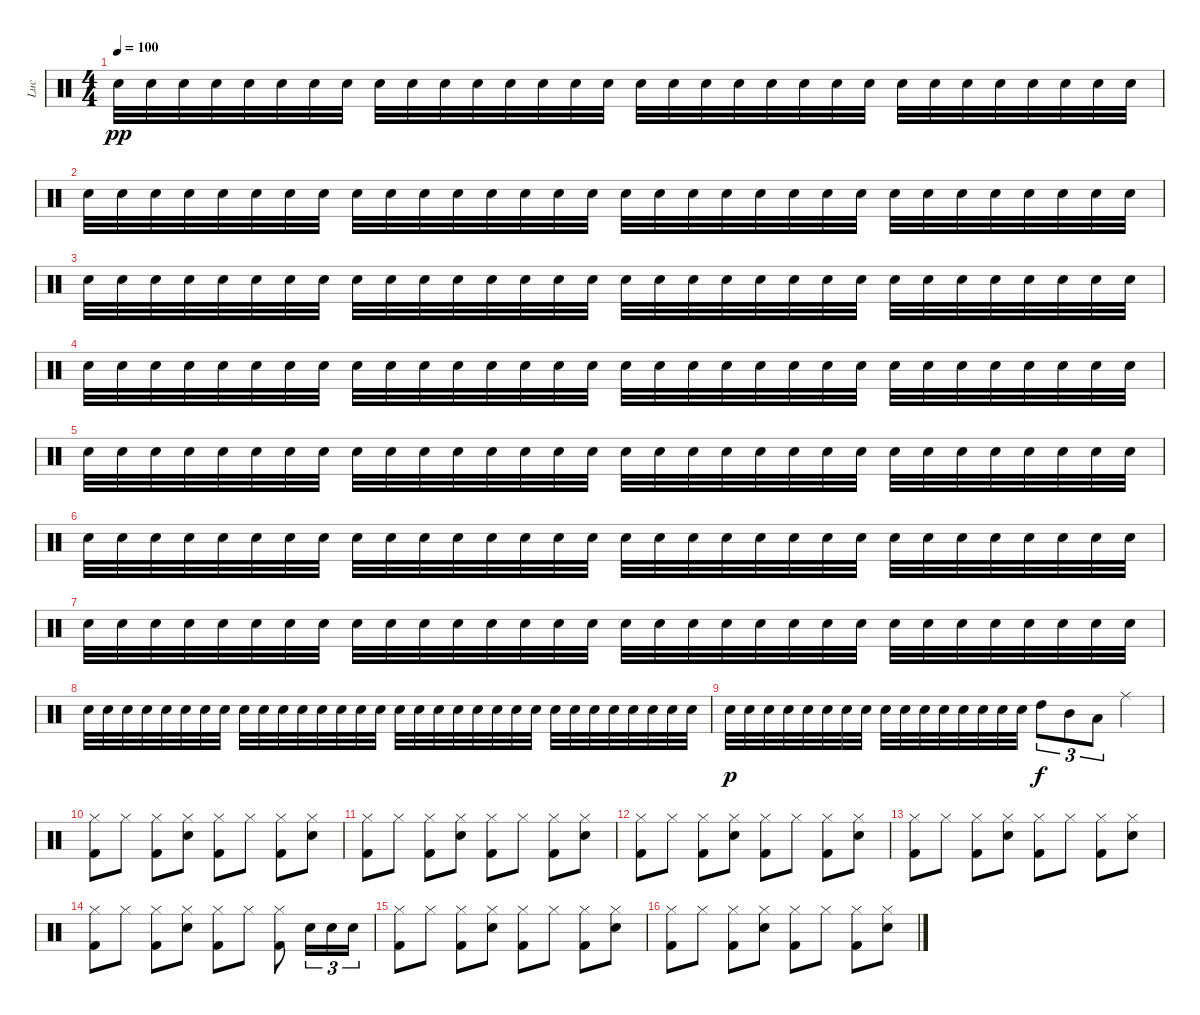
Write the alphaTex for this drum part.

\track ("Luc" "Luc") {instrument percussion}
\staff {score}
\articulation defaults
\ts (4 4)
\tempo 100
\clef neutral
\ks c "Snare (hit) 2".32{dy pp} "Snare (hit) 2".32 "Snare (hit) 2".32 "Snare (hit) 2".32 "Snare (hit) 2".32 "Snare (hit) 2".32 "Snare (hit) 2".32 "Snare (hit) 2".32 "Snare (hit) 2".32 "Snare (hit) 2".32 "Snare (hit) 2".32 "Snare (hit) 2".32 "Snare (hit) 2".32 "Snare (hit) 2".32 "Snare (hit) 2".32 "Snare (hit) 2".32 "Snare (hit) 2".32 "Snare (hit) 2".32 "Snare (hit) 2".32 "Snare (hit) 2".32 "Snare (hit) 2".32 "Snare (hit) 2".32 "Snare (hit) 2".32 "Snare (hit) 2".32 "Snare (hit) 2".32 "Snare (hit) 2".32 "Snare (hit) 2".32 "Snare (hit) 2".32 "Snare (hit) 2".32 "Snare (hit) 2".32 "Snare (hit) 2".32 "Snare (hit) 2".32
|
"Snare (hit) 2".32 "Snare (hit) 2".32 "Snare (hit) 2".32 "Snare (hit) 2".32 "Snare (hit) 2".32 "Snare (hit) 2".32 "Snare (hit) 2".32 "Snare (hit) 2".32 "Snare (hit) 2".32 "Snare (hit) 2".32 "Snare (hit) 2".32 "Snare (hit) 2".32 "Snare (hit) 2".32 "Snare (hit) 2".32 "Snare (hit) 2".32 "Snare (hit) 2".32 "Snare (hit) 2".32 "Snare (hit) 2".32 "Snare (hit) 2".32 "Snare (hit) 2".32 "Snare (hit) 2".32 "Snare (hit) 2".32 "Snare (hit) 2".32 "Snare (hit) 2".32 "Snare (hit) 2".32 "Snare (hit) 2".32 "Snare (hit) 2".32 "Snare (hit) 2".32 "Snare (hit) 2".32 "Snare (hit) 2".32 "Snare (hit) 2".32 "Snare (hit) 2".32 |
"Snare (hit) 2".32 "Snare (hit) 2".32 "Snare (hit) 2".32 "Snare (hit) 2".32 "Snare (hit) 2".32 "Snare (hit) 2".32 "Snare (hit) 2".32 "Snare (hit) 2".32 "Snare (hit) 2".32 "Snare (hit) 2".32 "Snare (hit) 2".32 "Snare (hit) 2".32 "Snare (hit) 2".32 "Snare (hit) 2".32 "Snare (hit) 2".32 "Snare (hit) 2".32 "Snare (hit) 2".32 "Snare (hit) 2".32 "Snare (hit) 2".32 "Snare (hit) 2".32 "Snare (hit) 2".32 "Snare (hit) 2".32 "Snare (hit) 2".32 "Snare (hit) 2".32 "Snare (hit) 2".32 "Snare (hit) 2".32 "Snare (hit) 2".32 "Snare (hit) 2".32 "Snare (hit) 2".32 "Snare (hit) 2".32 "Snare (hit) 2".32 "Snare (hit) 2".32 |
"Snare (hit) 2".32 "Snare (hit) 2".32 "Snare (hit) 2".32 "Snare (hit) 2".32 "Snare (hit) 2".32 "Snare (hit) 2".32 "Snare (hit) 2".32 "Snare (hit) 2".32 "Snare (hit) 2".32 "Snare (hit) 2".32 "Snare (hit) 2".32 "Snare (hit) 2".32 "Snare (hit) 2".32 "Snare (hit) 2".32 "Snare (hit) 2".32 "Snare (hit) 2".32 "Snare (hit) 2".32 "Snare (hit) 2".32 "Snare (hit) 2".32 "Snare (hit) 2".32 "Snare (hit) 2".32 "Snare (hit) 2".32 "Snare (hit) 2".32 "Snare (hit) 2".32 "Snare (hit) 2".32 "Snare (hit) 2".32 "Snare (hit) 2".32 "Snare (hit) 2".32 "Snare (hit) 2".32 "Snare (hit) 2".32 "Snare (hit) 2".32 "Snare (hit) 2".32 |
"Snare (hit) 2".32 "Snare (hit) 2".32 "Snare (hit) 2".32 "Snare (hit) 2".32 "Snare (hit) 2".32 "Snare (hit) 2".32 "Snare (hit) 2".32 "Snare (hit) 2".32 "Snare (hit) 2".32 "Snare (hit) 2".32 "Snare (hit) 2".32 "Snare (hit) 2".32 "Snare (hit) 2".32 "Snare (hit) 2".32 "Snare (hit) 2".32 "Snare (hit) 2".32 "Snare (hit) 2".32 "Snare (hit) 2".32 "Snare (hit) 2".32 "Snare (hit) 2".32 "Snare (hit) 2".32 "Snare (hit) 2".32 "Snare (hit) 2".32 "Snare (hit) 2".32 "Snare (hit) 2".32 "Snare (hit) 2".32 "Snare (hit) 2".32 "Snare (hit) 2".32 "Snare (hit) 2".32 "Snare (hit) 2".32 "Snare (hit) 2".32 "Snare (hit) 2".32 |
"Snare (hit) 2".32 "Snare (hit) 2".32 "Snare (hit) 2".32 "Snare (hit) 2".32 "Snare (hit) 2".32 "Snare (hit) 2".32 "Snare (hit) 2".32 "Snare (hit) 2".32 "Snare (hit) 2".32 "Snare (hit) 2".32 "Snare (hit) 2".32 "Snare (hit) 2".32 "Snare (hit) 2".32 "Snare (hit) 2".32 "Snare (hit) 2".32 "Snare (hit) 2".32 "Snare (hit) 2".32 "Snare (hit) 2".32 "Snare (hit) 2".32 "Snare (hit) 2".32 "Snare (hit) 2".32 "Snare (hit) 2".32 "Snare (hit) 2".32 "Snare (hit) 2".32 "Snare (hit) 2".32 "Snare (hit) 2".32 "Snare (hit) 2".32 "Snare (hit) 2".32 "Snare (hit) 2".32 "Snare (hit) 2".32 "Snare (hit) 2".32 "Snare (hit) 2".32 |
"Snare (hit) 2".32 "Snare (hit) 2".32 "Snare (hit) 2".32 "Snare (hit) 2".32 "Snare (hit) 2".32 "Snare (hit) 2".32 "Snare (hit) 2".32 "Snare (hit) 2".32 "Snare (hit) 2".32 "Snare (hit) 2".32 "Snare (hit) 2".32 "Snare (hit) 2".32 "Snare (hit) 2".32 "Snare (hit) 2".32 "Snare (hit) 2".32 "Snare (hit) 2".32 "Snare (hit) 2".32 "Snare (hit) 2".32 "Snare (hit) 2".32 "Snare (hit) 2".32 "Snare (hit) 2".32 "Snare (hit) 2".32 "Snare (hit) 2".32 "Snare (hit) 2".32 "Snare (hit) 2".32 "Snare (hit) 2".32 "Snare (hit) 2".32 "Snare (hit) 2".32 "Snare (hit) 2".32 "Snare (hit) 2".32 "Snare (hit) 2".32 "Snare (hit) 2".32 |
"Snare (hit) 2".32 "Snare (hit) 2".32 "Snare (hit) 2".32 "Snare (hit) 2".32 "Snare (hit) 2".32 "Snare (hit) 2".32 "Snare (hit) 2".32 "Snare (hit) 2".32 "Snare (hit) 2".32 "Snare (hit) 2".32 "Snare (hit) 2".32 "Snare (hit) 2".32 "Snare (hit) 2".32 "Snare (hit) 2".32 "Snare (hit) 2".32 "Snare (hit) 2".32 "Snare (hit) 2".32 "Snare (hit) 2".32 "Snare (hit) 2".32 "Snare (hit) 2".32 "Snare (hit) 2".32 "Snare (hit) 2".32 "Snare (hit) 2".32 "Snare (hit) 2".32 "Snare (hit) 2".32 "Snare (hit) 2".32 "Snare (hit) 2".32 "Snare (hit) 2".32 "Snare (hit) 2".32 "Snare (hit) 2".32 "Snare (hit) 2".32 "Snare (hit) 2".32 |
"Snare (hit) 2".32{dy p} "Snare (hit) 2".32 "Snare (hit) 2".32 "Snare (hit) 2".32 "Snare (hit) 2".32 "Snare (hit) 2".32 "Snare (hit) 2".32 "Snare (hit) 2".32 "Snare (hit) 2".32 "Snare (hit) 2".32 "Snare (hit) 2".32 "Snare (hit) 2".32 "Snare (hit) 2".32 "Snare (hit) 2".32 "Snare (hit) 2".32 "Snare (hit) 2".32 "High Tom (hit)".8{tu (3 2) dy f} "Mid Tom (hit)".8{tu (3 2)} "Low Tom (hit)".8{tu (3 2)} "Ride (middle)".4 |
("Hi-Hat (closed)" "Kick (hit) 2").8 "Hi-Hat (closed)".8 ("Hi-Hat (closed)" "Kick (hit) 2").8 ("Hi-Hat (closed)" "Snare (hit) 2").8 ("Hi-Hat (closed)" "Kick (hit) 2").8 "Hi-Hat (closed)".8 ("Hi-Hat (closed)" "Kick (hit) 2").8 ("Hi-Hat (closed)" "Snare (hit) 2").8 |
("Hi-Hat (closed)" "Kick (hit) 2").8 "Hi-Hat (closed)".8 ("Hi-Hat (closed)" "Kick (hit) 2").8 ("Hi-Hat (closed)" "Snare (hit) 2").8 ("Hi-Hat (closed)" "Kick (hit) 2").8 "Hi-Hat (closed)".8 ("Hi-Hat (closed)" "Kick (hit) 2").8 ("Hi-Hat (closed)" "Snare (hit) 2").8 |
("Hi-Hat (closed)" "Kick (hit) 2").8 "Hi-Hat (closed)".8 ("Hi-Hat (closed)" "Kick (hit) 2").8 ("Hi-Hat (closed)" "Snare (hit) 2").8 ("Hi-Hat (closed)" "Kick (hit) 2").8 "Hi-Hat (closed)".8 ("Hi-Hat (closed)" "Kick (hit) 2").8 ("Hi-Hat (closed)" "Snare (hit) 2").8 |
("Hi-Hat (closed)" "Kick (hit) 2").8 "Hi-Hat (closed)".8 ("Hi-Hat (closed)" "Kick (hit) 2").8 ("Hi-Hat (closed)" "Snare (hit) 2").8 ("Hi-Hat (closed)" "Kick (hit) 2").8 "Hi-Hat (closed)".8 ("Hi-Hat (closed)" "Kick (hit) 2").8 ("Hi-Hat (closed)" "Snare (hit) 2").8 |
("Hi-Hat (closed)" "Kick (hit) 2").8 "Hi-Hat (closed)".8 ("Hi-Hat (closed)" "Kick (hit) 2").8 ("Hi-Hat (closed)" "Snare (hit) 2").8 ("Hi-Hat (closed)" "Kick (hit) 2").8 "Hi-Hat (closed)".8 ("Hi-Hat (closed)" "Kick (hit) 2").8 "Snare (hit) 2".16{tu (3 2)} "Snare (hit) 2".16{tu (3 2)} "Snare (hit) 2".16{tu (3 2)} |
("Hi-Hat (closed)" "Kick (hit) 2").8 "Hi-Hat (closed)".8 ("Hi-Hat (closed)" "Kick (hit) 2").8 ("Hi-Hat (closed)" "Snare (hit) 2").8 ("Hi-Hat (closed)" "Kick (hit) 2").8 "Hi-Hat (closed)".8 ("Hi-Hat (closed)" "Kick (hit) 2").8 ("Hi-Hat (closed)" "Snare (hit) 2").8 |
("Hi-Hat (closed)" "Kick (hit) 2").8 "Hi-Hat (closed)".8 ("Hi-Hat (closed)" "Kick (hit) 2").8 ("Hi-Hat (closed)" "Snare (hit) 2").8 ("Hi-Hat (closed)" "Kick (hit) 2").8 "Hi-Hat (closed)".8 ("Hi-Hat (closed)" "Kick (hit) 2").8 ("Hi-Hat (closed)" "Snare (hit) 2").8
